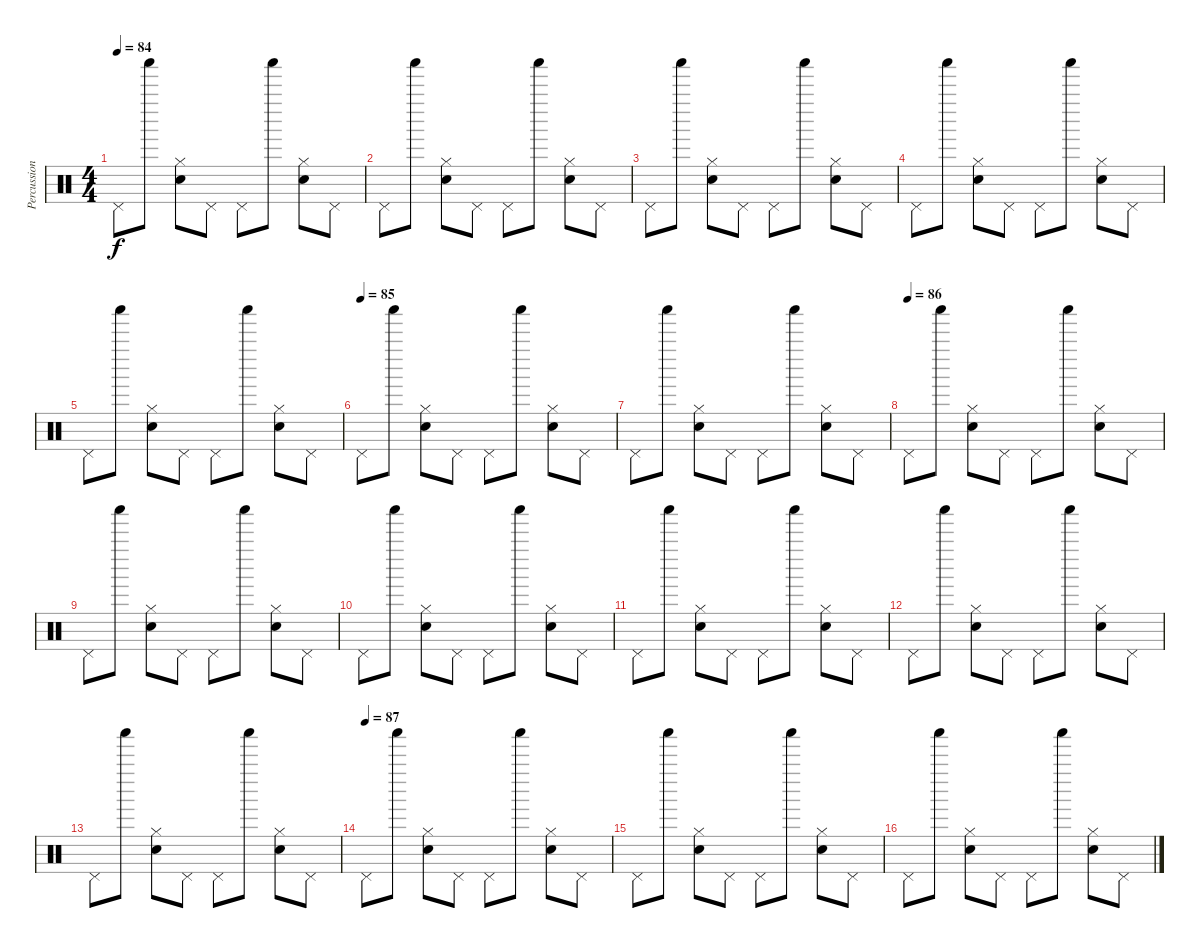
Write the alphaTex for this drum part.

\track ("Percussion" "Percussion") {instrument percussion}
\staff {score}
\articulation defaults
\ts (4 4)
\tempo 84
\clef neutral
\ks c "Pedal Hi-Hat (hit)".8{dy f} "Shaker (hit)".8
("Hi-Hat (closed)" "Electric Snare (hit)").8 "Pedal Hi-Hat (hit)".8 "Pedal Hi-Hat (hit)".8 "Shaker (hit)".8 ("Hi-Hat (closed)" "Electric Snare (hit)").8 "Pedal Hi-Hat (hit)".8 |
"Pedal Hi-Hat (hit)".8 "Shaker (hit)".8 ("Hi-Hat (closed)" "Electric Snare (hit)").8 "Pedal Hi-Hat (hit)".8 "Pedal Hi-Hat (hit)".8 "Shaker (hit)".8 ("Hi-Hat (closed)" "Electric Snare (hit)").8 "Pedal Hi-Hat (hit)".8 |
"Pedal Hi-Hat (hit)".8 "Shaker (hit)".8 ("Hi-Hat (closed)" "Electric Snare (hit)").8 "Pedal Hi-Hat (hit)".8 "Pedal Hi-Hat (hit)".8 "Shaker (hit)".8 ("Hi-Hat (closed)" "Electric Snare (hit)").8 "Pedal Hi-Hat (hit)".8 |
"Pedal Hi-Hat (hit)".8 "Shaker (hit)".8 ("Hi-Hat (closed)" "Electric Snare (hit)").8 "Pedal Hi-Hat (hit)".8 "Pedal Hi-Hat (hit)".8 "Shaker (hit)".8 ("Hi-Hat (closed)" "Electric Snare (hit)").8 "Pedal Hi-Hat (hit)".8 |
"Pedal Hi-Hat (hit)".8 "Shaker (hit)".8 ("Hi-Hat (closed)" "Electric Snare (hit)").8 "Pedal Hi-Hat (hit)".8 "Pedal Hi-Hat (hit)".8 "Shaker (hit)".8 ("Hi-Hat (closed)" "Electric Snare (hit)").8 "Pedal Hi-Hat (hit)".8 |
\tempo (85)
"Pedal Hi-Hat (hit)".8 "Shaker (hit)".8 ("Hi-Hat (closed)" "Electric Snare (hit)").8 "Pedal Hi-Hat (hit)".8 "Pedal Hi-Hat (hit)".8 "Shaker (hit)".8 ("Hi-Hat (closed)" "Electric Snare (hit)").8 "Pedal Hi-Hat (hit)".8 |
"Pedal Hi-Hat (hit)".8 "Shaker (hit)".8 ("Hi-Hat (closed)" "Electric Snare (hit)").8 "Pedal Hi-Hat (hit)".8 "Pedal Hi-Hat (hit)".8 "Shaker (hit)".8 ("Hi-Hat (closed)" "Electric Snare (hit)").8 "Pedal Hi-Hat (hit)".8 |
\tempo (86)
"Pedal Hi-Hat (hit)".8 "Shaker (hit)".8 ("Hi-Hat (closed)" "Electric Snare (hit)").8 "Pedal Hi-Hat (hit)".8 "Pedal Hi-Hat (hit)".8 "Shaker (hit)".8 ("Hi-Hat (closed)" "Electric Snare (hit)").8 "Pedal Hi-Hat (hit)".8 |
"Pedal Hi-Hat (hit)".8 "Shaker (hit)".8 ("Hi-Hat (closed)" "Electric Snare (hit)").8 "Pedal Hi-Hat (hit)".8 "Pedal Hi-Hat (hit)".8 "Shaker (hit)".8 ("Hi-Hat (closed)" "Electric Snare (hit)").8 "Pedal Hi-Hat (hit)".8 |
"Pedal Hi-Hat (hit)".8 "Shaker (hit)".8 ("Hi-Hat (closed)" "Electric Snare (hit)").8 "Pedal Hi-Hat (hit)".8 "Pedal Hi-Hat (hit)".8 "Shaker (hit)".8 ("Hi-Hat (closed)" "Electric Snare (hit)").8 "Pedal Hi-Hat (hit)".8 |
"Pedal Hi-Hat (hit)".8 "Shaker (hit)".8 ("Hi-Hat (closed)" "Electric Snare (hit)").8 "Pedal Hi-Hat (hit)".8 "Pedal Hi-Hat (hit)".8 "Shaker (hit)".8 ("Hi-Hat (closed)" "Electric Snare (hit)").8 "Pedal Hi-Hat (hit)".8 |
"Pedal Hi-Hat (hit)".8 "Shaker (hit)".8 ("Hi-Hat (closed)" "Electric Snare (hit)").8 "Pedal Hi-Hat (hit)".8 "Pedal Hi-Hat (hit)".8 "Shaker (hit)".8 ("Hi-Hat (closed)" "Electric Snare (hit)").8 "Pedal Hi-Hat (hit)".8 |
"Pedal Hi-Hat (hit)".8 "Shaker (hit)".8 ("Hi-Hat (closed)" "Electric Snare (hit)").8 "Pedal Hi-Hat (hit)".8 "Pedal Hi-Hat (hit)".8 "Shaker (hit)".8 ("Hi-Hat (closed)" "Electric Snare (hit)").8 "Pedal Hi-Hat (hit)".8 |
\tempo (87)
"Pedal Hi-Hat (hit)".8 "Shaker (hit)".8 ("Hi-Hat (closed)" "Electric Snare (hit)").8 "Pedal Hi-Hat (hit)".8 "Pedal Hi-Hat (hit)".8 "Shaker (hit)".8 ("Hi-Hat (closed)" "Electric Snare (hit)").8 "Pedal Hi-Hat (hit)".8 |
"Pedal Hi-Hat (hit)".8 "Shaker (hit)".8 ("Hi-Hat (closed)" "Electric Snare (hit)").8 "Pedal Hi-Hat (hit)".8 "Pedal Hi-Hat (hit)".8 "Shaker (hit)".8 ("Hi-Hat (closed)" "Electric Snare (hit)").8 "Pedal Hi-Hat (hit)".8 |
"Pedal Hi-Hat (hit)".8 "Shaker (hit)".8 ("Hi-Hat (closed)" "Electric Snare (hit)").8 "Pedal Hi-Hat (hit)".8 "Pedal Hi-Hat (hit)".8 "Shaker (hit)".8 ("Hi-Hat (closed)" "Electric Snare (hit)").8 "Pedal Hi-Hat (hit)".8
